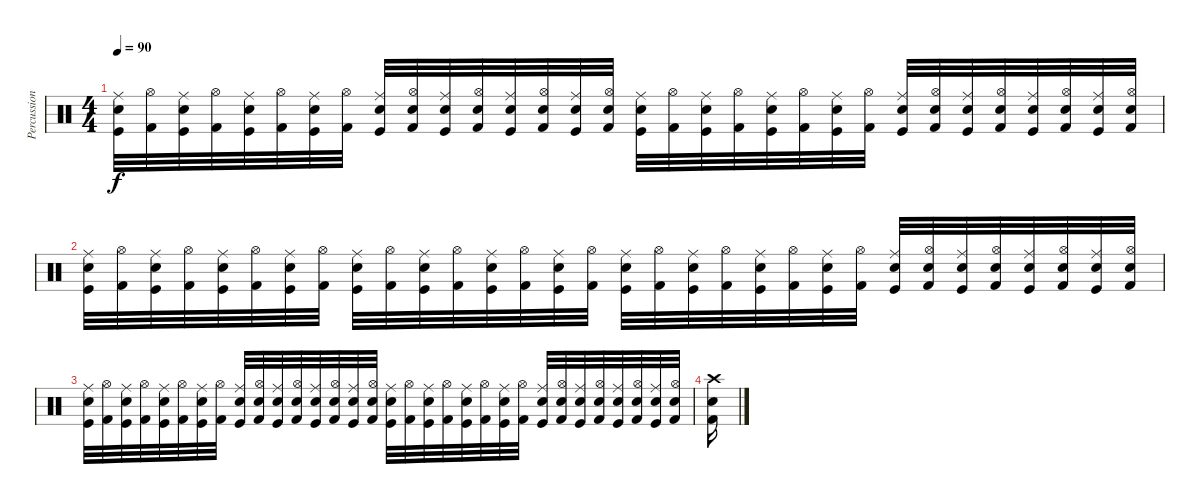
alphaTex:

\track ("Percussion" "Percussion") {instrument percussion}
\staff {score}
\articulation defaults
\ts (4 4)
\tempo 90
\clef neutral
\ks c
("Electric Snare (hit)" "Ride (middle)" "Kick (hit)").32{dy f} ("Hi-Hat (open)" "Kick (hit) 2").32 ("Electric Snare (hit)" "Ride (middle)" "Kick (hit)").32 ("Hi-Hat (open)" "Kick (hit) 2").32 ("Electric Snare (hit)" "Ride (middle)" "Kick (hit)").32 ("Hi-Hat (open)" "Kick (hit) 2").32 ("Electric Snare (hit)" "Ride (middle)" "Kick (hit)").32 ("Hi-Hat (open)" "Kick (hit) 2").32 ("Electric Snare (hit)" "Ride (middle)" "Kick (hit)").32 ("Electric Snare (hit)" "Hi-Hat (open)" "Kick (hit) 2").32 ("Electric Snare (hit)" "Ride (middle)" "Kick (hit)").32 ("Electric Snare (hit)" "Hi-Hat (open)" "Kick (hit) 2").32 ("Electric Snare (hit)" "Ride (middle)" "Kick (hit)").32 ("Electric Snare (hit)" "Hi-Hat (open)" "Kick (hit) 2").32 ("Electric Snare (hit)" "Ride (middle)" "Kick (hit)").32 ("Electric Snare (hit)" "Hi-Hat (open)" "Kick (hit) 2").32 ("Electric Snare (hit)" "Ride (middle)" "Kick (hit)").32 ("Hi-Hat (open)" "Kick (hit) 2").32 ("Electric Snare (hit)" "Ride (middle)" "Kick (hit)").32 ("Hi-Hat (open)" "Kick (hit) 2").32 ("Electric Snare (hit)" "Ride (middle)" "Kick (hit)").32 ("Hi-Hat (open)" "Kick (hit) 2").32 ("Electric Snare (hit)" "Ride (middle)" "Kick (hit)").32 ("Hi-Hat (open)" "Kick (hit) 2").32 ("Electric Snare (hit)" "Ride (middle)" "Kick (hit)").32 ("Electric Snare (hit)" "Hi-Hat (open)" "Kick (hit) 2").32 ("Electric Snare (hit)" "Ride (middle)" "Kick (hit)").32 ("Electric Snare (hit)" "Hi-Hat (open)" "Kick (hit) 2").32 ("Electric Snare (hit)" "Ride (middle)" "Kick (hit)").32 ("Electric Snare (hit)" "Hi-Hat (open)" "Kick (hit) 2").32 ("Electric Snare (hit)" "Ride (middle)" "Kick (hit)").32 ("Electric Snare (hit)" "Hi-Hat (open)" "Kick (hit) 2").32 |
("Electric Snare (hit)" "Ride (middle)" "Kick (hit)").32 ("Hi-Hat (open)" "Kick (hit) 2").32 ("Electric Snare (hit)" "Ride (middle)" "Kick (hit)").32 ("Hi-Hat (open)" "Kick (hit) 2").32 ("Electric Snare (hit)" "Ride (middle)" "Kick (hit)").32 ("Hi-Hat (open)" "Kick (hit) 2").32 ("Electric Snare (hit)" "Ride (middle)" "Kick (hit)").32 ("Hi-Hat (open)" "Kick (hit) 2").32 ("Electric Snare (hit)" "Ride (middle)" "Kick (hit)").32 ("Hi-Hat (open)" "Kick (hit) 2").32 ("Electric Snare (hit)" "Ride (middle)" "Kick (hit)").32 ("Hi-Hat (open)" "Kick (hit) 2").32 ("Electric Snare (hit)" "Ride (middle)" "Kick (hit)").32 ("Hi-Hat (open)" "Kick (hit) 2").32 ("Electric Snare (hit)" "Ride (middle)" "Kick (hit)").32 ("Hi-Hat (open)" "Kick (hit) 2").32 ("Electric Snare (hit)" "Ride (middle)" "Kick (hit)").32 ("Hi-Hat (open)" "Kick (hit) 2").32 ("Electric Snare (hit)" "Ride (middle)" "Kick (hit)").32 ("Hi-Hat (open)" "Kick (hit) 2").32 ("Electric Snare (hit)" "Ride (middle)" "Kick (hit)").32 ("Hi-Hat (open)" "Kick (hit) 2").32 ("Electric Snare (hit)" "Ride (middle)" "Kick (hit)").32 ("Hi-Hat (open)" "Kick (hit) 2").32 ("Electric Snare (hit)" "Ride (middle)" "Kick (hit)").32 ("Electric Snare (hit)" "Hi-Hat (open)" "Kick (hit) 2").32 ("Electric Snare (hit)" "Ride (middle)" "Kick (hit)").32 ("Electric Snare (hit)" "Hi-Hat (open)" "Kick (hit) 2").32 ("Electric Snare (hit)" "Ride (middle)" "Kick (hit)").32 ("Electric Snare (hit)" "Hi-Hat (open)" "Kick (hit) 2").32 ("Electric Snare (hit)" "Ride (middle)" "Kick (hit)").32 ("Electric Snare (hit)" "Hi-Hat (open)" "Kick (hit) 2").32 |
("Electric Snare (hit)" "Ride (middle)" "Kick (hit)").32 ("Hi-Hat (open)" "Kick (hit) 2").32 ("Electric Snare (hit)" "Ride (middle)" "Kick (hit)").32 ("Hi-Hat (open)" "Kick (hit) 2").32 ("Electric Snare (hit)" "Ride (middle)" "Kick (hit)").32 ("Hi-Hat (open)" "Kick (hit) 2").32 ("Electric Snare (hit)" "Ride (middle)" "Kick (hit)").32 ("Hi-Hat (open)" "Kick (hit) 2").32 ("Electric Snare (hit)" "Ride (middle)" "Kick (hit)").32 ("Electric Snare (hit)" "Hi-Hat (open)" "Kick (hit) 2").32 ("Electric Snare (hit)" "Ride (middle)" "Kick (hit)").32 ("Electric Snare (hit)" "Hi-Hat (open)" "Kick (hit) 2").32 ("Electric Snare (hit)" "Ride (middle)" "Kick (hit)").32 ("Electric Snare (hit)" "Hi-Hat (open)" "Kick (hit) 2").32 ("Electric Snare (hit)" "Ride (middle)" "Kick (hit)").32 ("Electric Snare (hit)" "Hi-Hat (open)" "Kick (hit) 2").32 ("Electric Snare (hit)" "Ride (middle)" "Kick (hit)").32 ("Hi-Hat (open)" "Kick (hit) 2").32 ("Electric Snare (hit)" "Ride (middle)" "Kick (hit)").32 ("Hi-Hat (open)" "Kick (hit) 2").32 ("Electric Snare (hit)" "Ride (middle)" "Kick (hit)").32 ("Hi-Hat (open)" "Kick (hit) 2").32 ("Electric Snare (hit)" "Ride (middle)" "Kick (hit)").32 ("Hi-Hat (open)" "Kick (hit) 2").32 ("Electric Snare (hit)" "Ride (middle)" "Kick (hit)").32 ("Electric Snare (hit)" "Hi-Hat (open)" "Kick (hit) 2").32 ("Electric Snare (hit)" "Ride (middle)" "Kick (hit)").32 ("Electric Snare (hit)" "Hi-Hat (open)" "Kick (hit) 2").32 ("Electric Snare (hit)" "Ride (middle)" "Kick (hit)").32 ("Electric Snare (hit)" "Hi-Hat (open)" "Kick (hit) 2").32 ("Electric Snare (hit)" "Ride (middle)" "Kick (hit)").32 ("Electric Snare (hit)" "Hi-Hat (open)" "Kick (hit) 2").32 |
("Electric Snare (hit)" "Crash high (hit)" "Kick (hit) 2").16
